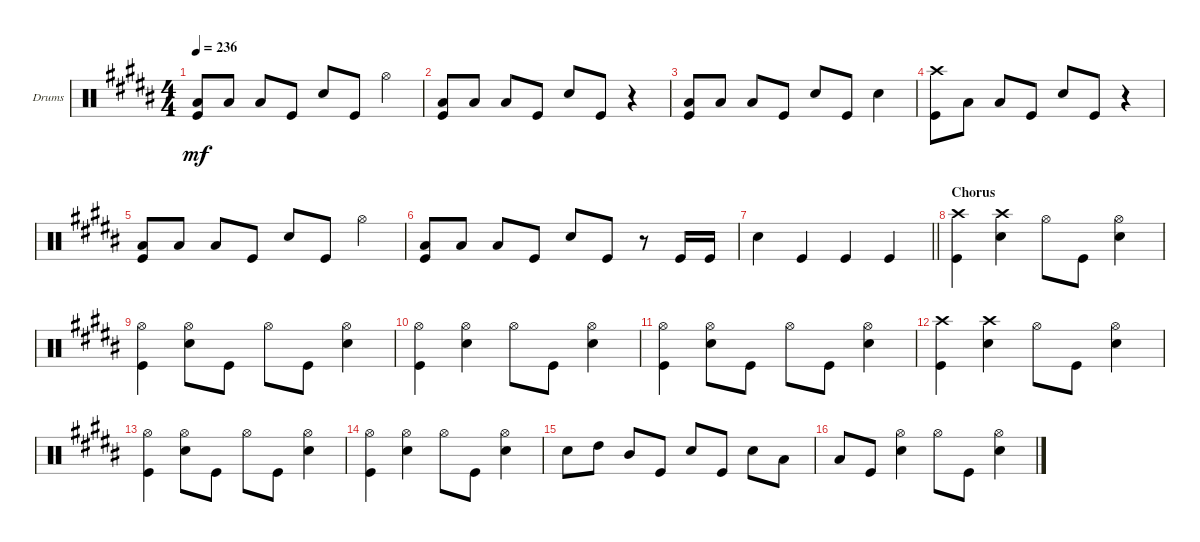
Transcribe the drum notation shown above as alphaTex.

\defaultSystemsLayout 4
\bracketExtendMode groupsimilarinstruments
\firstSystemTrackNameOrientation horizontal
\otherSystemsTrackNameOrientation horizontal
\track ("Drums" "Drums") {instrument percussion}
\staff {score}
\articulation defaults
\ts (4 4)
\tempo 236
\clef neutral
\ks b
("Kick (hit)" "Low Tom (hit)").8{dy mf} "Low Tom (hit)".8 "Low Tom (hit)".8 "Kick (hit)".8 "Snare (hit) 2".8 "Kick (hit)".8 "Hi-Hat (open)".4 |
("Kick (hit)" "Low Tom (hit)").8 "Low Tom (hit)".8 "Low Tom (hit)".8 "Kick (hit)".8 "Snare (hit) 2".8 "Kick (hit)".8 r.4 |
("Kick (hit)" "Low Tom (hit)").8 "Low Tom (hit)".8 "Low Tom (hit)".8 "Kick (hit)".8 "Snare (hit) 2".8 "Kick (hit)".8 "Snare (hit) 2".4 |
("Kick (hit)" "Crash high (hit)").8 "Low Tom (hit)".8 "Low Tom (hit)".8 "Kick (hit)".8 "Snare (hit) 2".8 "Kick (hit)".8 r.4 |
("Kick (hit)" "Low Tom (hit)").8 "Low Tom (hit)".8 "Low Tom (hit)".8 "Kick (hit)".8 "Snare (hit) 2".8 "Kick (hit)".8 "Hi-Hat (open)".4 |
("Kick (hit)" "Low Tom (hit)").8 "Low Tom (hit)".8 "Low Tom (hit)".8 "Kick (hit)".8 "Snare (hit) 2".8 "Kick (hit)".8 r.8 "Kick (hit)".16 "Kick (hit)".16 |
\barLineRight lightlight "Snare (hit) 2".4 "Kick (hit)".4 "Kick (hit)".4 "Kick (hit)".4
|
\section ("" "Chorus")
("Kick (hit)" "Crash high (hit)").4 ("Crash high (hit)" "Snare (hit) 2").4 "Hi-Hat (open)".8 "Kick (hit)".8 ("Snare (hit) 2" "Hi-Hat (open)").4 |
("Kick (hit)" "Hi-Hat (open)").4 ("Snare (hit) 2" "Hi-Hat (open)").8 "Kick (hit)".8 "Hi-Hat (open)".8 "Kick (hit)".8 ("Snare (hit) 2" "Hi-Hat (open)").4 |
("Kick (hit)" "Hi-Hat (open)").4 ("Snare (hit) 2" "Hi-Hat (open)").4 "Hi-Hat (open)".8 "Kick (hit)".8 ("Snare (hit) 2" "Hi-Hat (open)").4 |
("Kick (hit)" "Hi-Hat (open)").4 ("Snare (hit) 2" "Hi-Hat (open)").8 "Kick (hit)".8 "Hi-Hat (open)".8 "Kick (hit)".8 ("Snare (hit) 2" "Hi-Hat (open)").4 |
("Kick (hit)" "Crash high (hit)").4 ("Crash high (hit)" "Snare (hit) 2").4 "Hi-Hat (open)".8 "Kick (hit)".8 ("Snare (hit) 2" "Hi-Hat (open)").4 |
("Kick (hit)" "Hi-Hat (open)").4 ("Snare (hit) 2" "Hi-Hat (open)").8 "Kick (hit)".8 "Hi-Hat (open)".8 "Kick (hit)".8 ("Snare (hit) 2" "Hi-Hat (open)").4 |
("Kick (hit)" "Hi-Hat (open)").4 ("Snare (hit) 2" "Hi-Hat (open)").4 "Hi-Hat (open)".8 "Kick (hit)".8 ("Snare (hit) 2" "Hi-Hat (open)").4 |
"Snare (hit) 2".8 "High Tom (hit)".8 "Mid Tom (hit)".8 "Kick (hit)".8 "Snare (hit) 2".8 "Kick (hit)".8 "Snare (hit) 2".8 "Low Tom (hit)".8 |
"Low Tom (hit)".8 "Kick (hit)".8 ("Snare (hit) 2" "Hi-Hat (open)").4 "Hi-Hat (open)".8 "Kick (hit)".8 ("Snare (hit) 2" "Hi-Hat (open)").4
